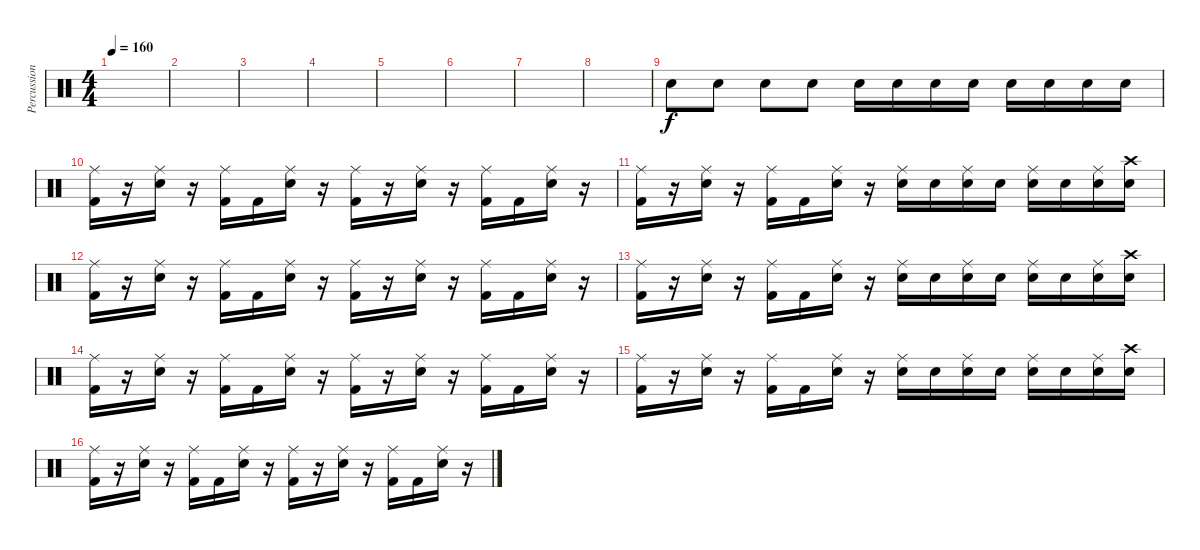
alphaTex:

\track ("Percussion" "Percussion") {instrument percussion}
\staff {score}
\articulation defaults
\ts (4 4)
\tempo 160
\clef neutral
\ks c
|
|
|
|
|
|
|
|
"Electric Snare (hit)".8 "Electric Snare (hit)".8 "Electric Snare (hit)".8 "Electric Snare (hit)".8 "Electric Snare (hit)".16 "Electric Snare (hit)".16 "Electric Snare (hit)".16 "Electric Snare (hit)".16 "Electric Snare (hit)".16 "Electric Snare (hit)".16 "Electric Snare (hit)".16 "Electric Snare (hit)".16 |
("Ride (middle)" "Kick (hit) 2").16 r.16 ("Ride (middle)" "Electric Snare (hit)").16 r.16 ("Ride (middle)" "Kick (hit) 2").16 "Kick (hit) 2".16 ("Ride (middle)" "Electric Snare (hit)").16 r.16 ("Ride (middle)" "Kick (hit) 2").16 r.16 ("Ride (middle)" "Electric Snare (hit)").16 r.16 ("Ride (middle)" "Kick (hit) 2").16 "Kick (hit) 2".16 ("Ride (middle)" "Electric Snare (hit)").16 r.16 |
("Ride (middle)" "Kick (hit) 2").16 r.16 ("Ride (middle)" "Electric Snare (hit)").16 r.16 ("Ride (middle)" "Kick (hit) 2").16 "Kick (hit) 2".16 ("Ride (middle)" "Electric Snare (hit)").16 r.16 ("Ride (middle)" "Electric Snare (hit)").16 "Electric Snare (hit)".16 ("Ride (middle)" "Electric Snare (hit)").16 "Electric Snare (hit)".16 ("Ride (middle)" "Electric Snare (hit)").16 "Electric Snare (hit)".16 ("Ride (middle)" "Electric Snare (hit)").16 ("Crash high (hit)" "Electric Snare (hit)").16 |
("Ride (middle)" "Kick (hit) 2").16 r.16 ("Ride (middle)" "Electric Snare (hit)").16 r.16 ("Ride (middle)" "Kick (hit) 2").16 "Kick (hit) 2".16 ("Ride (middle)" "Electric Snare (hit)").16 r.16 ("Ride (middle)" "Kick (hit) 2").16 r.16 ("Ride (middle)" "Electric Snare (hit)").16 r.16 ("Ride (middle)" "Kick (hit) 2").16 "Kick (hit) 2".16 ("Ride (middle)" "Electric Snare (hit)").16 r.16 |
("Ride (middle)" "Kick (hit) 2").16 r.16 ("Ride (middle)" "Electric Snare (hit)").16 r.16 ("Ride (middle)" "Kick (hit) 2").16 "Kick (hit) 2".16 ("Ride (middle)" "Electric Snare (hit)").16 r.16 ("Ride (middle)" "Electric Snare (hit)").16 "Electric Snare (hit)".16 ("Ride (middle)" "Electric Snare (hit)").16 "Electric Snare (hit)".16 ("Ride (middle)" "Electric Snare (hit)").16 "Electric Snare (hit)".16 ("Ride (middle)" "Electric Snare (hit)").16 ("Crash high (hit)" "Electric Snare (hit)").16 |
("Ride (middle)" "Kick (hit) 2").16 r.16 ("Ride (middle)" "Electric Snare (hit)").16 r.16 ("Ride (middle)" "Kick (hit) 2").16 "Kick (hit) 2".16 ("Ride (middle)" "Electric Snare (hit)").16 r.16 ("Ride (middle)" "Kick (hit) 2").16 r.16 ("Ride (middle)" "Electric Snare (hit)").16 r.16 ("Ride (middle)" "Kick (hit) 2").16 "Kick (hit) 2".16 ("Ride (middle)" "Electric Snare (hit)").16 r.16 |
("Ride (middle)" "Kick (hit) 2").16 r.16 ("Ride (middle)" "Electric Snare (hit)").16 r.16 ("Ride (middle)" "Kick (hit) 2").16 "Kick (hit) 2".16 ("Ride (middle)" "Electric Snare (hit)").16 r.16 ("Ride (middle)" "Electric Snare (hit)").16 "Electric Snare (hit)".16 ("Ride (middle)" "Electric Snare (hit)").16 "Electric Snare (hit)".16 ("Ride (middle)" "Electric Snare (hit)").16 "Electric Snare (hit)".16 ("Ride (middle)" "Electric Snare (hit)").16 ("Crash high (hit)" "Electric Snare (hit)").16 |
("Ride (middle)" "Kick (hit) 2").16 r.16 ("Ride (middle)" "Electric Snare (hit)").16 r.16 ("Ride (middle)" "Kick (hit) 2").16 "Kick (hit) 2".16 ("Ride (middle)" "Electric Snare (hit)").16 r.16 ("Ride (middle)" "Kick (hit) 2").16 r.16 ("Ride (middle)" "Electric Snare (hit)").16 r.16 ("Ride (middle)" "Kick (hit) 2").16 "Kick (hit) 2".16 ("Ride (middle)" "Electric Snare (hit)").16 r.16
